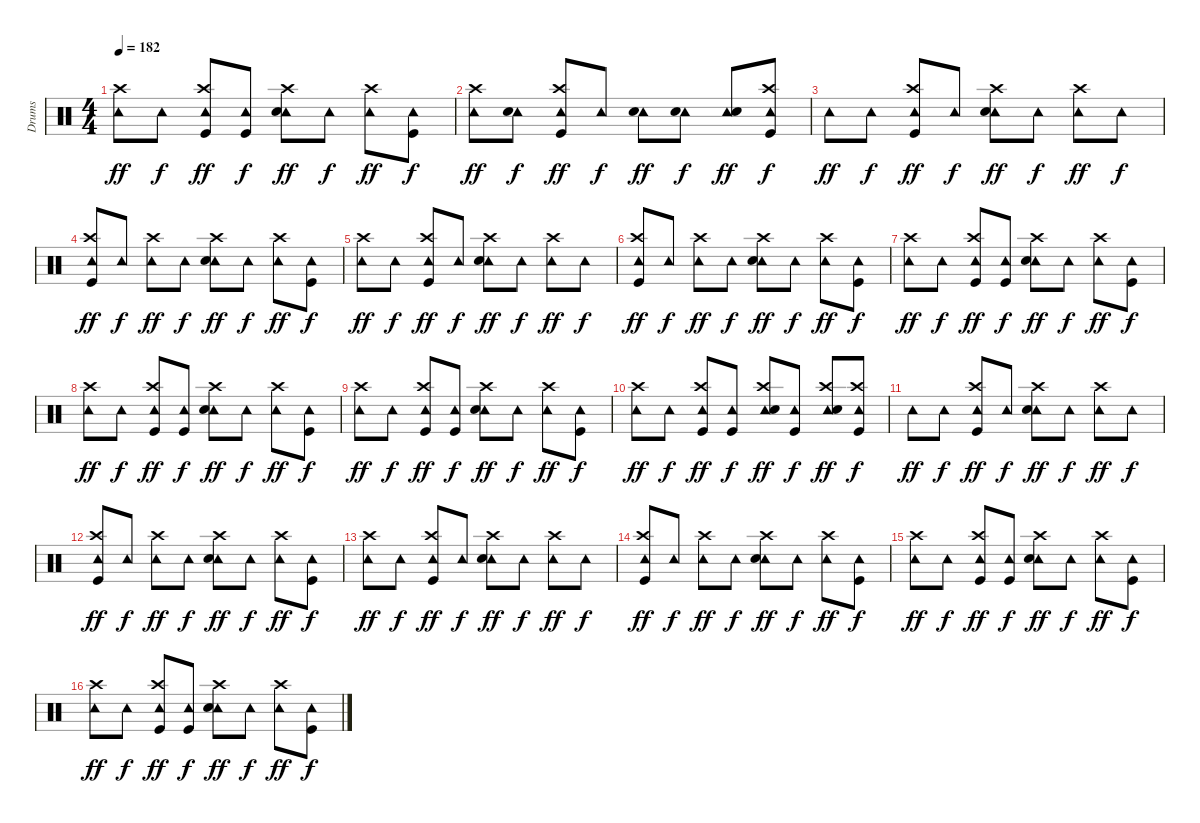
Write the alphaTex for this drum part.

\track ("Drums" "Drums") {instrument percussion}
\staff {score}
\articulation defaults
\ts (4 4)
\tempo 182
\clef neutral
\ks c
("Tambourine (hit)" "Crash high (hit)").8{dy ff} "Tambourine (hit)".8{dy f} ("Tambourine (hit)" "Crash high (hit)" "Kick (hit)").8{dy ff} ("Tambourine (hit)" "Kick (hit)").8{dy f} ("Tambourine (hit)" "Crash high (hit)" "Electric Snare (hit)").8{dy ff} "Tambourine (hit)".8{dy f} ("Tambourine (hit)" "Crash high (hit)").8{dy ff} ("Tambourine (hit)" "Kick (hit)").8{dy f} |
("Tambourine (hit)" "Crash high (hit)").8{dy ff} ("Tambourine (hit)" "Electric Snare (hit)").8{dy f} ("Tambourine (hit)" "Crash high (hit)" "Kick (hit)").8{dy ff} "Tambourine (hit)".8{dy f} ("Tambourine (hit)" "Electric Snare (hit)").8{dy ff} ("Tambourine (hit)" "Electric Snare (hit)").8{dy f} ("Tambourine (hit)" "Electric Snare (hit)").8{dy ff} ("Tambourine (hit)" "Crash high (hit)" "Kick (hit)").8{dy f} |
"Tambourine (hit)".8{dy ff} "Tambourine (hit)".8{dy f} ("Tambourine (hit)" "Crash high (hit)" "Kick (hit)").8{dy ff} "Tambourine (hit)".8{dy f} ("Tambourine (hit)" "Crash high (hit)" "Electric Snare (hit)").8{dy ff} "Tambourine (hit)".8{dy f} ("Tambourine (hit)" "Crash high (hit)").8{dy ff} "Tambourine (hit)".8{dy f} |
("Tambourine (hit)" "Kick (hit)" "Crash high (hit)").8{dy ff} "Tambourine (hit)".8{dy f} ("Tambourine (hit)" "Crash high (hit)").8{dy ff} "Tambourine (hit)".8{dy f} ("Tambourine (hit)" "Crash high (hit)" "Electric Snare (hit)").8{dy ff} "Tambourine (hit)".8{dy f} ("Tambourine (hit)" "Crash high (hit)").8{dy ff} ("Tambourine (hit)" "Kick (hit)").8{dy f} |
("Tambourine (hit)" "Crash high (hit)").8{dy ff} "Tambourine (hit)".8{dy f} ("Tambourine (hit)" "Crash high (hit)" "Kick (hit)").8{dy ff} "Tambourine (hit)".8{dy f} ("Tambourine (hit)" "Crash high (hit)" "Electric Snare (hit)").8{dy ff} "Tambourine (hit)".8{dy f} ("Tambourine (hit)" "Crash high (hit)").8{dy ff} "Tambourine (hit)".8{dy f} |
("Tambourine (hit)" "Kick (hit)" "Crash high (hit)").8{dy ff} "Tambourine (hit)".8{dy f} ("Tambourine (hit)" "Crash high (hit)").8{dy ff} "Tambourine (hit)".8{dy f} ("Tambourine (hit)" "Crash high (hit)" "Electric Snare (hit)").8{dy ff} "Tambourine (hit)".8{dy f} ("Tambourine (hit)" "Crash high (hit)").8{dy ff} ("Tambourine (hit)" "Kick (hit)").8{dy f} |
("Tambourine (hit)" "Crash high (hit)").8{dy ff} "Tambourine (hit)".8{dy f} ("Tambourine (hit)" "Crash high (hit)" "Kick (hit)").8{dy ff} ("Tambourine (hit)" "Kick (hit)").8{dy f} ("Tambourine (hit)" "Crash high (hit)" "Electric Snare (hit)").8{dy ff} "Tambourine (hit)".8{dy f} ("Tambourine (hit)" "Crash high (hit)").8{dy ff} ("Tambourine (hit)" "Kick (hit)").8{dy f} |
("Tambourine (hit)" "Crash high (hit)").8{dy ff} "Tambourine (hit)".8{dy f} ("Tambourine (hit)" "Crash high (hit)" "Kick (hit)").8{dy ff} ("Tambourine (hit)" "Kick (hit)").8{dy f} ("Tambourine (hit)" "Crash high (hit)" "Electric Snare (hit)").8{dy ff} "Tambourine (hit)".8{dy f} ("Tambourine (hit)" "Crash high (hit)").8{dy ff} ("Tambourine (hit)" "Kick (hit)").8{dy f} |
("Tambourine (hit)" "Crash high (hit)").8{dy ff} "Tambourine (hit)".8{dy f} ("Tambourine (hit)" "Crash high (hit)" "Kick (hit)").8{dy ff} ("Tambourine (hit)" "Kick (hit)").8{dy f} ("Tambourine (hit)" "Crash high (hit)" "Electric Snare (hit)").8{dy ff} "Tambourine (hit)".8{dy f} ("Tambourine (hit)" "Crash high (hit)").8{dy ff} ("Tambourine (hit)" "Kick (hit)").8{dy f} |
("Tambourine (hit)" "Crash high (hit)").8{dy ff} "Tambourine (hit)".8{dy f} ("Tambourine (hit)" "Crash high (hit)" "Kick (hit)").8{dy ff} ("Tambourine (hit)" "Kick (hit)").8{dy f} ("Tambourine (hit)" "Crash high (hit)" "Electric Snare (hit)").8{dy ff} ("Tambourine (hit)" "Kick (hit)").8{dy f} ("Tambourine (hit)" "Electric Snare (hit)" "Crash high (hit)").8{dy ff} ("Tambourine (hit)" "Crash high (hit)" "Kick (hit)").8{dy f} |
"Tambourine (hit)".8{dy ff} "Tambourine (hit)".8{dy f} ("Tambourine (hit)" "Crash high (hit)" "Kick (hit)").8{dy ff} "Tambourine (hit)".8{dy f} ("Tambourine (hit)" "Crash high (hit)" "Electric Snare (hit)").8{dy ff} "Tambourine (hit)".8{dy f} ("Tambourine (hit)" "Crash high (hit)").8{dy ff} "Tambourine (hit)".8{dy f} |
("Tambourine (hit)" "Kick (hit)" "Crash high (hit)").8{dy ff} "Tambourine (hit)".8{dy f} ("Tambourine (hit)" "Crash high (hit)").8{dy ff} "Tambourine (hit)".8{dy f} ("Tambourine (hit)" "Crash high (hit)" "Electric Snare (hit)").8{dy ff} "Tambourine (hit)".8{dy f} ("Tambourine (hit)" "Crash high (hit)").8{dy ff} ("Tambourine (hit)" "Kick (hit)").8{dy f} |
("Tambourine (hit)" "Crash high (hit)").8{dy ff} "Tambourine (hit)".8{dy f} ("Tambourine (hit)" "Crash high (hit)" "Kick (hit)").8{dy ff} "Tambourine (hit)".8{dy f} ("Tambourine (hit)" "Crash high (hit)" "Electric Snare (hit)").8{dy ff} "Tambourine (hit)".8{dy f} ("Tambourine (hit)" "Crash high (hit)").8{dy ff} "Tambourine (hit)".8{dy f} |
("Tambourine (hit)" "Kick (hit)" "Crash high (hit)").8{dy ff} "Tambourine (hit)".8{dy f} ("Tambourine (hit)" "Crash high (hit)").8{dy ff} "Tambourine (hit)".8{dy f} ("Tambourine (hit)" "Crash high (hit)" "Electric Snare (hit)").8{dy ff} "Tambourine (hit)".8{dy f} ("Tambourine (hit)" "Crash high (hit)").8{dy ff} ("Tambourine (hit)" "Kick (hit)").8{dy f} |
("Tambourine (hit)" "Crash high (hit)").8{dy ff} "Tambourine (hit)".8{dy f} ("Tambourine (hit)" "Crash high (hit)" "Kick (hit)").8{dy ff} ("Tambourine (hit)" "Kick (hit)").8{dy f} ("Tambourine (hit)" "Crash high (hit)" "Electric Snare (hit)").8{dy ff} "Tambourine (hit)".8{dy f} ("Tambourine (hit)" "Crash high (hit)").8{dy ff} ("Tambourine (hit)" "Kick (hit)").8{dy f} |
("Tambourine (hit)" "Crash high (hit)").8{dy ff} "Tambourine (hit)".8{dy f} ("Tambourine (hit)" "Crash high (hit)" "Kick (hit)").8{dy ff} ("Tambourine (hit)" "Kick (hit)").8{dy f} ("Tambourine (hit)" "Crash high (hit)" "Electric Snare (hit)").8{dy ff} "Tambourine (hit)".8{dy f} ("Tambourine (hit)" "Crash high (hit)").8{dy ff} ("Tambourine (hit)" "Kick (hit)").8{dy f}
